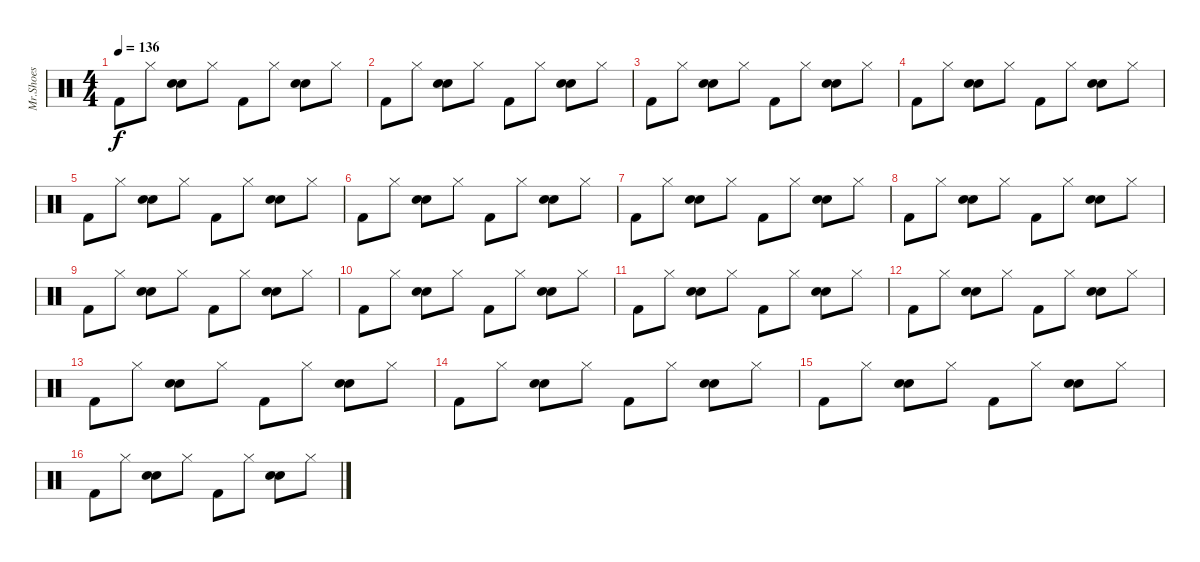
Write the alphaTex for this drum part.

\track ("Mr.Shoes" "Mr.Shoes") {instrument percussion}
\staff {score}
\articulation defaults
\ts (4 4)
\tempo 136
\clef neutral
\ks c "Kick (hit) 2".8{dy f} "Hi-Hat (closed)".8
("Electric Snare (hit)" "Snare (hit) 2").8 "Hi-Hat (closed)".8 "Kick (hit) 2".8 "Hi-Hat (closed)".8 ("Electric Snare (hit)" "Snare (hit) 2").8 "Hi-Hat (closed)".8 |
"Kick (hit) 2".8 "Hi-Hat (closed)".8 ("Electric Snare (hit)" "Snare (hit) 2").8 "Hi-Hat (closed)".8 "Kick (hit) 2".8 "Hi-Hat (closed)".8 ("Electric Snare (hit)" "Snare (hit) 2").8 "Hi-Hat (closed)".8 |
"Kick (hit) 2".8 "Hi-Hat (closed)".8 ("Electric Snare (hit)" "Snare (hit) 2").8 "Hi-Hat (closed)".8 "Kick (hit) 2".8 "Hi-Hat (closed)".8 ("Electric Snare (hit)" "Snare (hit) 2").8 "Hi-Hat (closed)".8 |
"Kick (hit) 2".8 "Hi-Hat (closed)".8 ("Electric Snare (hit)" "Snare (hit) 2").8 "Hi-Hat (closed)".8 "Kick (hit) 2".8 "Hi-Hat (closed)".8 ("Electric Snare (hit)" "Snare (hit) 2").8 "Hi-Hat (closed)".8 |
"Kick (hit) 2".8 "Hi-Hat (closed)".8 ("Electric Snare (hit)" "Snare (hit) 2").8 "Hi-Hat (closed)".8 "Kick (hit) 2".8 "Hi-Hat (closed)".8 ("Electric Snare (hit)" "Snare (hit) 2").8 "Hi-Hat (closed)".8 |
"Kick (hit) 2".8 "Hi-Hat (closed)".8 ("Electric Snare (hit)" "Snare (hit) 2").8 "Hi-Hat (closed)".8 "Kick (hit) 2".8 "Hi-Hat (closed)".8 ("Electric Snare (hit)" "Snare (hit) 2").8 "Hi-Hat (closed)".8 |
"Kick (hit) 2".8 "Hi-Hat (closed)".8 ("Electric Snare (hit)" "Snare (hit) 2").8 "Hi-Hat (closed)".8 "Kick (hit) 2".8 "Hi-Hat (closed)".8 ("Electric Snare (hit)" "Snare (hit) 2").8 "Hi-Hat (closed)".8 |
"Kick (hit) 2".8 "Hi-Hat (closed)".8 ("Electric Snare (hit)" "Snare (hit) 2").8 "Hi-Hat (closed)".8 "Kick (hit) 2".8 "Hi-Hat (closed)".8 ("Electric Snare (hit)" "Snare (hit) 2").8 "Hi-Hat (closed)".8 |
"Kick (hit) 2".8 "Hi-Hat (closed)".8 ("Electric Snare (hit)" "Snare (hit) 2").8 "Hi-Hat (closed)".8 "Kick (hit) 2".8 "Hi-Hat (closed)".8 ("Electric Snare (hit)" "Snare (hit) 2").8 "Hi-Hat (closed)".8 |
"Kick (hit) 2".8 "Hi-Hat (closed)".8 ("Electric Snare (hit)" "Snare (hit) 2").8 "Hi-Hat (closed)".8 "Kick (hit) 2".8 "Hi-Hat (closed)".8 ("Electric Snare (hit)" "Snare (hit) 2").8 "Hi-Hat (closed)".8 |
"Kick (hit) 2".8 "Hi-Hat (closed)".8 ("Electric Snare (hit)" "Snare (hit) 2").8 "Hi-Hat (closed)".8 "Kick (hit) 2".8 "Hi-Hat (closed)".8 ("Electric Snare (hit)" "Snare (hit) 2").8 "Hi-Hat (closed)".8 |
"Kick (hit) 2".8 "Hi-Hat (closed)".8 ("Electric Snare (hit)" "Snare (hit) 2").8 "Hi-Hat (closed)".8 "Kick (hit) 2".8 "Hi-Hat (closed)".8 ("Electric Snare (hit)" "Snare (hit) 2").8 "Hi-Hat (closed)".8 |
"Kick (hit) 2".8 "Hi-Hat (closed)".8 ("Electric Snare (hit)" "Snare (hit) 2").8 "Hi-Hat (closed)".8 "Kick (hit) 2".8 "Hi-Hat (closed)".8 ("Electric Snare (hit)" "Snare (hit) 2").8 "Hi-Hat (closed)".8 |
"Kick (hit) 2".8 "Hi-Hat (closed)".8 ("Electric Snare (hit)" "Snare (hit) 2").8 "Hi-Hat (closed)".8 "Kick (hit) 2".8 "Hi-Hat (closed)".8 ("Electric Snare (hit)" "Snare (hit) 2").8 "Hi-Hat (closed)".8 |
"Kick (hit) 2".8 "Hi-Hat (closed)".8 ("Electric Snare (hit)" "Snare (hit) 2").8 "Hi-Hat (closed)".8 "Kick (hit) 2".8 "Hi-Hat (closed)".8 ("Electric Snare (hit)" "Snare (hit) 2").8 "Hi-Hat (closed)".8 |
"Kick (hit) 2".8 "Hi-Hat (closed)".8 ("Electric Snare (hit)" "Snare (hit) 2").8 "Hi-Hat (closed)".8 "Kick (hit) 2".8 "Hi-Hat (closed)".8 ("Electric Snare (hit)" "Snare (hit) 2").8 "Hi-Hat (closed)".8
